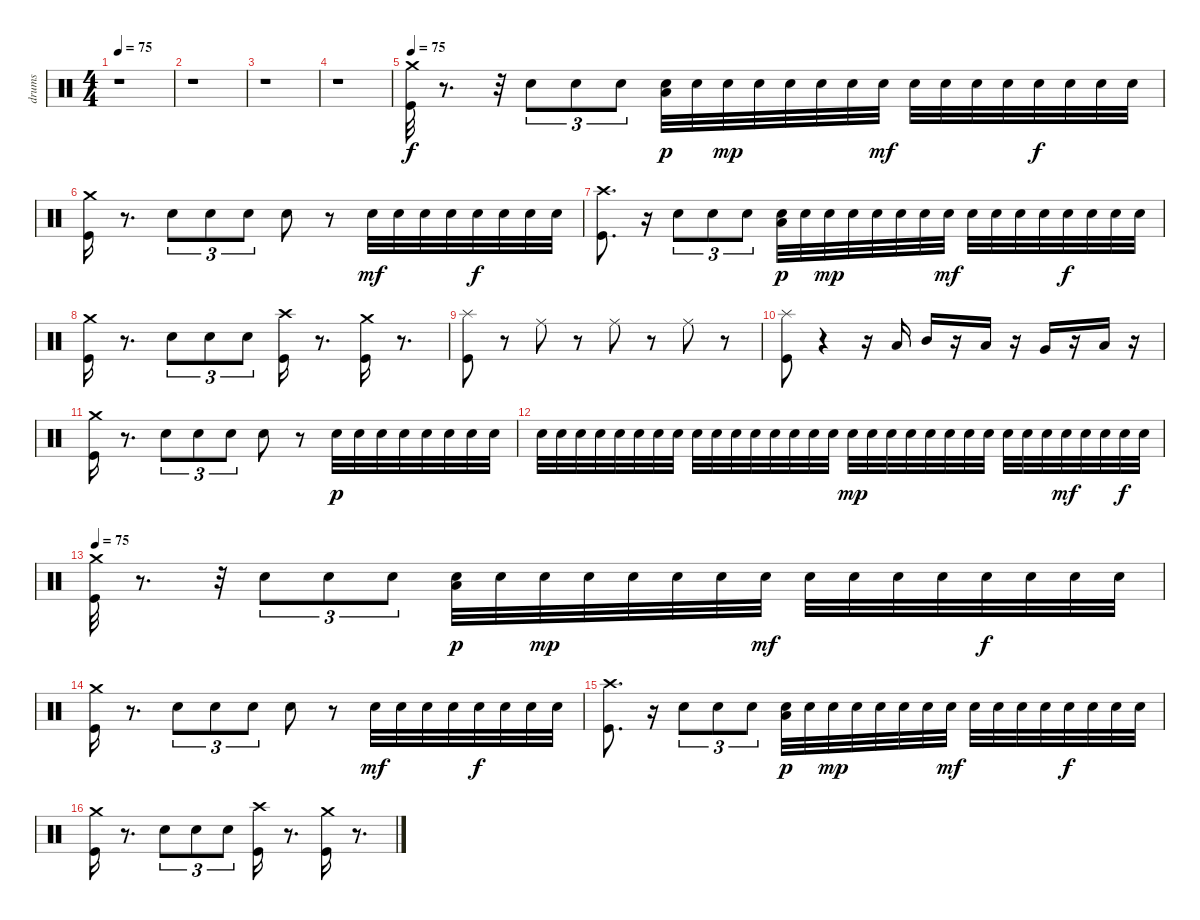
\track ("drums" "drums") {instrument percussion}
\staff {score}
\articulation defaults
\ts (4 4)
\tempo 75
\clef neutral
\ks c
r.1{dy f} |
r.1 |
r.1 |
r.1 |
\tempo 75
("Crash medium (hit)" "Kick (hit)").32 r.8{d} r.32 "Electric Snare (hit)".8{tu (3 2)} "Electric Snare (hit)".8{tu (3 2)} "Electric Snare (hit)".8{tu (3 2)} ("Low Floor Tom (hit)" "Electric Snare (hit)").32{dy p} "Electric Snare (hit)".32 "Electric Snare (hit)".32{dy mp} "Electric Snare (hit)".32 "Electric Snare (hit)".32 "Electric Snare (hit)".32 "Electric Snare (hit)".32 "Electric Snare (hit)".32{dy mf} "Electric Snare (hit)".32 "Electric Snare (hit)".32 "Electric Snare (hit)".32 "Electric Snare (hit)".32 "Electric Snare (hit)".32{dy f} "Electric Snare (hit)".32 "Electric Snare (hit)".32 "Electric Snare (hit)".32 |
("Crash medium (hit)" "Kick (hit)").16 r.8{d} "Snare (hit) 2".8{tu (3 2)} "Snare (hit) 2".8{tu (3 2)} "Snare (hit) 2".8{tu (3 2)} "Snare (hit) 2".8 r.8 "Electric Snare (hit)".32{dy mf} "Electric Snare (hit)".32 "Electric Snare (hit)".32 "Electric Snare (hit)".32 "Electric Snare (hit)".32{dy f} "Electric Snare (hit)".32 "Electric Snare (hit)".32 "Electric Snare (hit)".32 |
("Crash high (hit)" "Kick (hit)").8{d} r.16 "Electric Snare (hit)".8{tu (3 2)} "Electric Snare (hit)".8{tu (3 2)} "Electric Snare (hit)".8{tu (3 2)} ("Low Floor Tom (hit)" "Electric Snare (hit)").32{dy p} "Electric Snare (hit)".32 "Electric Snare (hit)".32{dy mp} "Electric Snare (hit)".32 "Electric Snare (hit)".32 "Electric Snare (hit)".32 "Electric Snare (hit)".32 "Electric Snare (hit)".32{dy mf} "Electric Snare (hit)".32 "Electric Snare (hit)".32 "Electric Snare (hit)".32 "Electric Snare (hit)".32 "Electric Snare (hit)".32{dy f} "Electric Snare (hit)".32 "Electric Snare (hit)".32 "Electric Snare (hit)".32 |
("Crash medium (hit)" "Kick (hit)").16 r.8{d} "Snare (hit) 2".8{tu (3 2)} "Snare (hit) 2".8{tu (3 2)} "Snare (hit) 2".8{tu (3 2)} ("Crash high (hit)" "Kick (hit)").16 r.8{d} ("Crash medium (hit)" "Kick (hit)").16 r.8{d} |
("Kick (hit)" "Splash (hit)").8 r.8 "Ride (middle)".8 r.8 "Ride (middle)".8 r.8 "Ride (middle)".8 r.8 |
("Splash (hit)" "Kick (hit)").8 r.4 r.16 "Low Tom (hit)".16 "Mid Tom (hit)".16 r.16 "Low Tom (hit)".16 r.16 "Very Low Tom (hit)".16 r.16 "Low Floor Tom (hit)".16 r.16 |
("Crash medium (hit)" "Kick (hit)").16 r.8{d} "Snare (hit) 2".8{tu (3 2)} "Snare (hit) 2".8{tu (3 2)} "Electric Snare (hit)".8{tu (3 2)} "Snare (hit) 2".8 r.8 "Electric Snare (hit)".32{dy p} "Electric Snare (hit)".32 "Electric Snare (hit)".32 "Electric Snare (hit)".32 "Electric Snare (hit)".32 "Electric Snare (hit)".32 "Electric Snare (hit)".32 "Electric Snare (hit)".32 |
"Electric Snare (hit)".32 "Electric Snare (hit)".32 "Electric Snare (hit)".32 "Electric Snare (hit)".32 "Electric Snare (hit)".32 "Electric Snare (hit)".32 "Electric Snare (hit)".32 "Electric Snare (hit)".32 "Electric Snare (hit)".32 "Electric Snare (hit)".32 "Electric Snare (hit)".32 "Electric Snare (hit)".32 "Electric Snare (hit)".32 "Electric Snare (hit)".32 "Electric Snare (hit)".32 "Electric Snare (hit)".32 "Electric Snare (hit)".32{dy mp} "Electric Snare (hit)".32 "Electric Snare (hit)".32 "Electric Snare (hit)".32 "Electric Snare (hit)".32 "Electric Snare (hit)".32 "Electric Snare (hit)".32 "Electric Snare (hit)".32 "Electric Snare (hit)".32 "Electric Snare (hit)".32 "Electric Snare (hit)".32 "Electric Snare (hit)".32{dy mf} "Electric Snare (hit)".32 "Electric Snare (hit)".32 "Electric Snare (hit)".32{dy f} "Electric Snare (hit)".32 |
\tempo 75
("Crash medium (hit)" "Kick (hit)").32 r.8{d} r.32 "Electric Snare (hit)".8{tu (3 2)} "Electric Snare (hit)".8{tu (3 2)} "Electric Snare (hit)".8{tu (3 2)} ("Low Floor Tom (hit)" "Electric Snare (hit)").32{dy p} "Electric Snare (hit)".32 "Electric Snare (hit)".32{dy mp} "Electric Snare (hit)".32 "Electric Snare (hit)".32 "Electric Snare (hit)".32 "Electric Snare (hit)".32 "Electric Snare (hit)".32{dy mf} "Electric Snare (hit)".32 "Electric Snare (hit)".32 "Electric Snare (hit)".32 "Electric Snare (hit)".32 "Electric Snare (hit)".32{dy f} "Electric Snare (hit)".32 "Electric Snare (hit)".32 "Electric Snare (hit)".32 |
("Crash medium (hit)" "Kick (hit)").16 r.8{d} "Snare (hit) 2".8{tu (3 2)} "Snare (hit) 2".8{tu (3 2)} "Snare (hit) 2".8{tu (3 2)} "Snare (hit) 2".8 r.8 "Electric Snare (hit)".32{dy mf} "Electric Snare (hit)".32 "Electric Snare (hit)".32 "Electric Snare (hit)".32 "Electric Snare (hit)".32{dy f} "Electric Snare (hit)".32 "Electric Snare (hit)".32 "Electric Snare (hit)".32 |
("Crash high (hit)" "Kick (hit)").8{d} r.16 "Electric Snare (hit)".8{tu (3 2)} "Electric Snare (hit)".8{tu (3 2)} "Electric Snare (hit)".8{tu (3 2)} ("Low Floor Tom (hit)" "Electric Snare (hit)").32{dy p} "Electric Snare (hit)".32 "Electric Snare (hit)".32{dy mp} "Electric Snare (hit)".32 "Electric Snare (hit)".32 "Electric Snare (hit)".32 "Electric Snare (hit)".32 "Electric Snare (hit)".32{dy mf} "Electric Snare (hit)".32 "Electric Snare (hit)".32 "Electric Snare (hit)".32 "Electric Snare (hit)".32 "Electric Snare (hit)".32{dy f} "Electric Snare (hit)".32 "Electric Snare (hit)".32 "Electric Snare (hit)".32 |
("Crash medium (hit)" "Kick (hit)").16 r.8{d} "Snare (hit) 2".8{tu (3 2)} "Snare (hit) 2".8{tu (3 2)} "Snare (hit) 2".8{tu (3 2)} ("Crash high (hit)" "Kick (hit)").16 r.8{d} ("Crash medium (hit)" "Kick (hit)").16 r.8{d}
